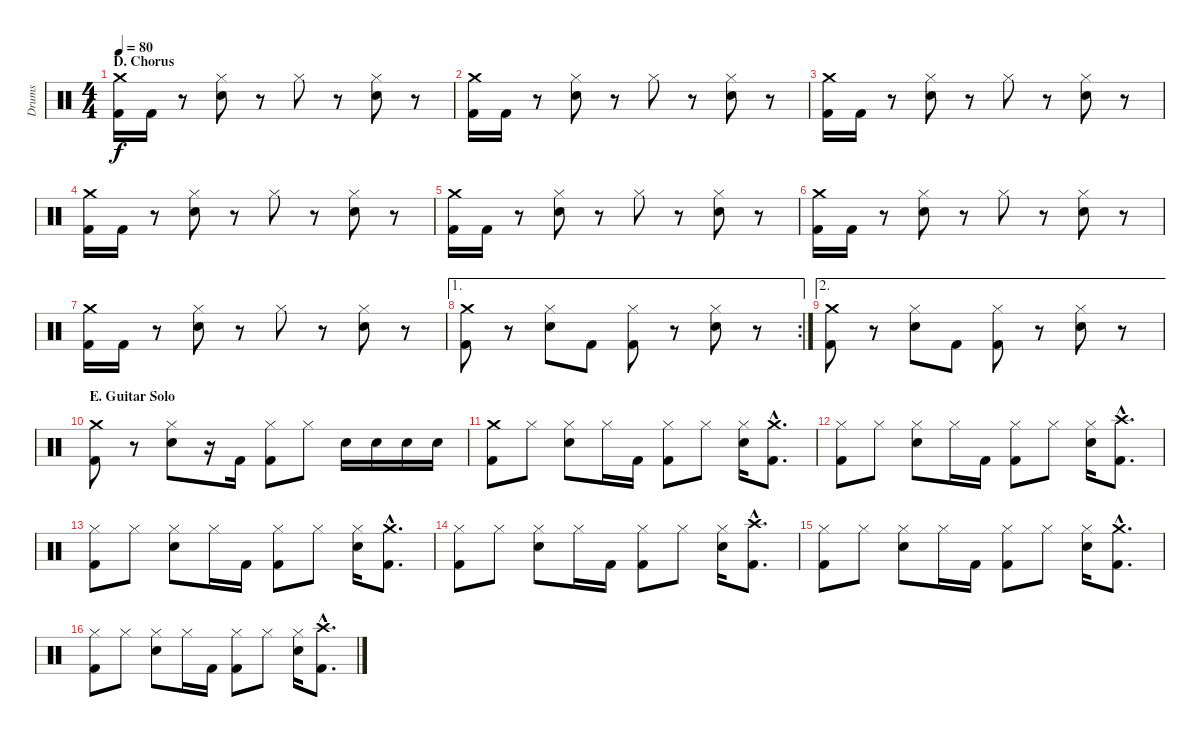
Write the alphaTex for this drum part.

\track ("Drums" "Drums") {instrument percussion}
\staff {score}
\articulation defaults
\ts (4 4)
\section ("" "D. Chorus")
\tempo 80
\clef neutral
\ks c
("Kick (hit) 2" "Crash medium (hit)").16{dy f} "Kick (hit) 2".16 r.8 ("Snare (hit) 2" "Hi-Hat (closed)").8 r.8 "Hi-Hat (closed)".8 r.8 ("Snare (hit) 2" "Hi-Hat (closed)").8 r.8 |
("Kick (hit) 2" "Crash medium (hit)").16 "Kick (hit) 2".16 r.8 ("Snare (hit) 2" "Hi-Hat (closed)").8 r.8 "Hi-Hat (closed)".8 r.8 ("Snare (hit) 2" "Hi-Hat (closed)").8 r.8 |
("Kick (hit) 2" "Crash medium (hit)").16 "Kick (hit) 2".16 r.8 ("Snare (hit) 2" "Hi-Hat (closed)").8 r.8 "Hi-Hat (closed)".8 r.8 ("Snare (hit) 2" "Hi-Hat (closed)").8 r.8 |
("Kick (hit) 2" "Crash medium (hit)").16 "Kick (hit) 2".16 r.8 ("Snare (hit) 2" "Hi-Hat (closed)").8 r.8 "Hi-Hat (closed)".8 r.8 ("Snare (hit) 2" "Hi-Hat (closed)").8 r.8 |
("Kick (hit) 2" "Crash medium (hit)").16 "Kick (hit) 2".16 r.8 ("Snare (hit) 2" "Hi-Hat (closed)").8 r.8 "Hi-Hat (closed)".8 r.8 ("Snare (hit) 2" "Hi-Hat (closed)").8 r.8 |
("Kick (hit) 2" "Crash medium (hit)").16 "Kick (hit) 2".16 r.8 ("Snare (hit) 2" "Hi-Hat (closed)").8 r.8 "Hi-Hat (closed)".8 r.8 ("Snare (hit) 2" "Hi-Hat (closed)").8 r.8 |
("Kick (hit) 2" "Crash medium (hit)").16 "Kick (hit) 2".16 r.8 ("Snare (hit) 2" "Hi-Hat (closed)").8 r.8 "Hi-Hat (closed)".8 r.8 ("Snare (hit) 2" "Hi-Hat (closed)").8 r.8 |
\ae 1
\rc 2
("Kick (hit) 2" "Crash medium (hit)").8 r.8 ("Snare (hit) 2" "Hi-Hat (closed)").8 "Kick (hit) 2".8 ("Kick (hit) 2" "Hi-Hat (closed)").8 r.8 ("Snare (hit) 2" "Hi-Hat (closed)").8 r.8 |
\ae 2
("Kick (hit) 2" "Crash medium (hit)").8 r.8 ("Snare (hit) 2" "Hi-Hat (closed)").8 "Kick (hit) 2".8 ("Kick (hit) 2" "Hi-Hat (closed)").8 r.8 ("Snare (hit) 2" "Hi-Hat (closed)").8 r.8 |
\section ("" "E. Guitar Solo")
("Kick (hit) 2" "Crash medium (hit)").8 r.8 ("Snare (hit) 2" "Hi-Hat (closed)").8 r.16 "Kick (hit) 2".16 ("Kick (hit) 2" "Hi-Hat (closed)").8 "Hi-Hat (closed)".8 "Snare (hit) 2".16 "Snare (hit) 2".16 "Snare (hit) 2".16 "Snare (hit) 2".16 |
("Kick (hit) 2" "Crash medium (hit)").8 "Hi-Hat (closed)".8 ("Snare (hit) 2" "Hi-Hat (closed)").8 "Hi-Hat (closed)".16 "Kick (hit) 2".16 ("Kick (hit) 2" "Hi-Hat (closed)").8 "Hi-Hat (closed)".8 ("Snare (hit) 2" "Hi-Hat (closed)").16 ("Kick (hit) 2"{hac} "Crash medium (hit)"{hac}).8{d} |
("Kick (hit) 2" "Hi-Hat (closed)").8 "Hi-Hat (closed)".8 ("Snare (hit) 2" "Hi-Hat (closed)").8 "Hi-Hat (closed)".16 "Kick (hit) 2".16 ("Kick (hit) 2" "Hi-Hat (closed)").8 "Hi-Hat (closed)".8 ("Snare (hit) 2" "Hi-Hat (closed)").16 ("Kick (hit) 2"{hac} "Crash high (hit)"{hac}).8{d} |
("Kick (hit) 2" "Hi-Hat (closed)").8 "Hi-Hat (closed)".8 ("Snare (hit) 2" "Hi-Hat (closed)").8 "Hi-Hat (closed)".16 "Kick (hit) 2".16 ("Kick (hit) 2" "Hi-Hat (closed)").8 "Hi-Hat (closed)".8 ("Snare (hit) 2" "Hi-Hat (closed)").16 ("Kick (hit) 2"{hac} "Crash medium (hit)"{hac}).8{d} |
("Kick (hit) 2" "Hi-Hat (closed)").8 "Hi-Hat (closed)".8 ("Snare (hit) 2" "Hi-Hat (closed)").8 "Hi-Hat (closed)".16 "Kick (hit) 2".16 ("Kick (hit) 2" "Hi-Hat (closed)").8 "Hi-Hat (closed)".8 ("Snare (hit) 2" "Hi-Hat (closed)").16 ("Kick (hit) 2"{hac} "Crash high (hit)"{hac}).8{d} |
("Kick (hit) 2" "Hi-Hat (closed)").8 "Hi-Hat (closed)".8 ("Snare (hit) 2" "Hi-Hat (closed)").8 "Hi-Hat (closed)".16 "Kick (hit) 2".16 ("Kick (hit) 2" "Hi-Hat (closed)").8 "Hi-Hat (closed)".8 ("Snare (hit) 2" "Hi-Hat (closed)").16 ("Kick (hit) 2"{hac} "Crash medium (hit)"{hac}).8{d} |
("Kick (hit) 2" "Hi-Hat (closed)").8 "Hi-Hat (closed)".8 ("Snare (hit) 2" "Hi-Hat (closed)").8 "Hi-Hat (closed)".16 "Kick (hit) 2".16 ("Kick (hit) 2" "Hi-Hat (closed)").8 "Hi-Hat (closed)".8 ("Snare (hit) 2" "Hi-Hat (closed)").16 ("Kick (hit) 2"{hac} "Crash high (hit)"{hac}).8{d}
